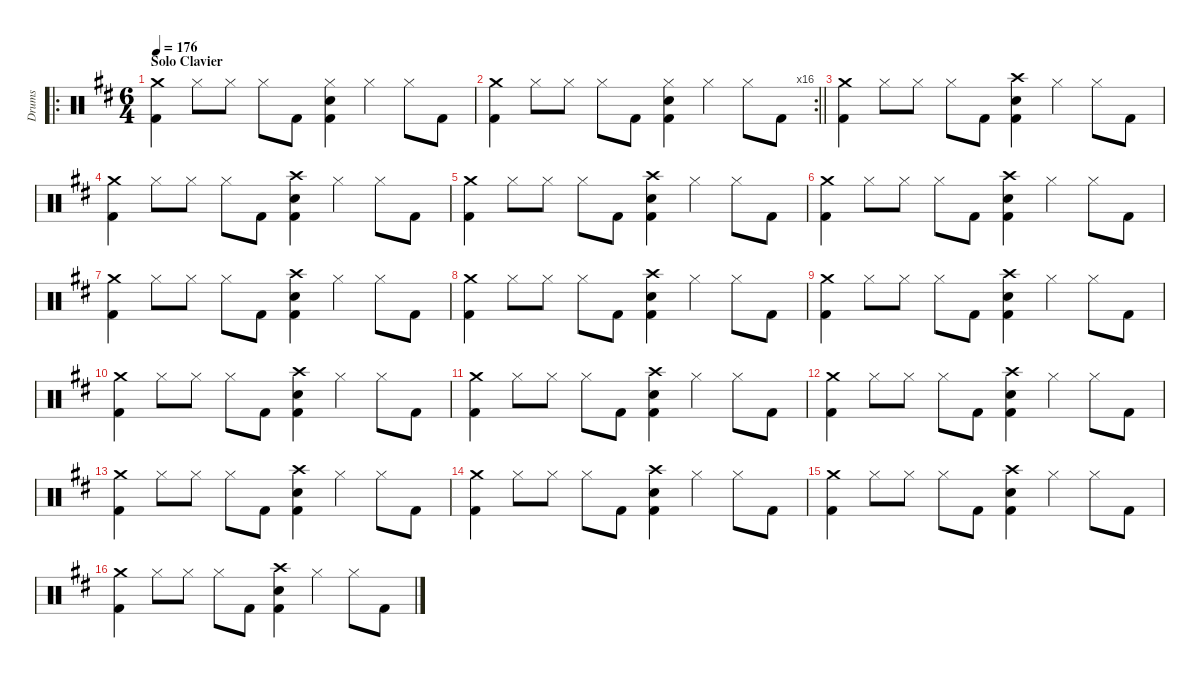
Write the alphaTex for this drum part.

\hideDynamics
\bracketExtendMode groupsimilarinstruments
\otherSystemsTrackNameOrientation horizontal
\track ("Drumkit" "Drums") {defaultSystemsLayout 4 instrument percussion}
\staff {score}
\articulation defaults
\ro
\ts (6 4)
\section ("" "Solo Clavier")
\tempo 176
\clef neutral
\ks bminor
("Crash medium (hit)"{acc forcenatural} "Kick (hit) 2"{acc forcenatural}).4{dy ff beam Down} "Hi-Hat (closed)"{acc forcenatural}.8{dy f beam Down} "Hi-Hat (closed)"{acc forcenatural}.8{beam Down} "Hi-Hat (closed)"{acc forcenatural}.8{beam Down} "Kick (hit) 2"{acc forcenatural}.8{beam Down} ("Hi-Hat (closed)"{acc forcenatural} "Snare (hit) 2"{acc forcenatural} "Kick (hit) 2"{acc forcenatural}).4{beam Down} "Hi-Hat (closed)"{acc forcenatural}.4{beam Down} "Hi-Hat (closed)"{acc forcenatural}.8{beam Down} "Kick (hit) 2"{acc forcenatural}.8{beam Down} |
\rc 16
\barLineRight lightlight
("Crash medium (hit)"{acc forcenatural} "Kick (hit) 2"{acc forcenatural}).4{dy ff beam Down} "Hi-Hat (closed)"{acc forcenatural}.8{dy f beam Down} "Hi-Hat (closed)"{acc forcenatural}.8{beam Down} "Hi-Hat (closed)"{acc forcenatural}.8{beam Down} "Kick (hit) 2"{acc forcenatural}.8{beam Down} ("Hi-Hat (closed)"{acc forcenatural} "Snare (hit) 2"{acc forcenatural} "Kick (hit) 2"{acc forcenatural}).4{beam Down} "Hi-Hat (closed)"{acc forcenatural}.4{beam Down} "Hi-Hat (closed)"{acc forcenatural}.8{beam Down} "Kick (hit) 2"{acc forcenatural}.8{beam Down} |
("Crash medium (hit)"{acc forcenatural} "Kick (hit) 2"{acc forcenatural}).4{dy ff beam Down} "Hi-Hat (closed)"{acc forcenatural}.8{dy f beam Down} "Hi-Hat (closed)"{acc forcenatural}.8{beam Down} "Hi-Hat (closed)"{acc forcenatural}.8{beam Down} "Kick (hit) 2"{acc forcenatural}.8{beam Down} ("Crash high (hit)"{acc forcenatural} "Snare (hit) 2"{acc forcenatural} "Kick (hit) 2"{acc forcenatural}).4{beam Down} "Hi-Hat (closed)"{acc forcenatural}.4{beam Down} "Hi-Hat (closed)"{acc forcenatural}.8{beam Down} "Kick (hit) 2"{acc forcenatural}.8{beam Down} |
("Crash medium (hit)"{acc forcenatural} "Kick (hit) 2"{acc forcenatural}).4{dy ff beam Down} "Hi-Hat (closed)"{acc forcenatural}.8{dy f beam Down} "Hi-Hat (closed)"{acc forcenatural}.8{beam Down} "Hi-Hat (closed)"{acc forcenatural}.8{beam Down} "Kick (hit) 2"{acc forcenatural}.8{beam Down} ("Crash high (hit)"{acc forcenatural} "Snare (hit) 2"{acc forcenatural} "Kick (hit) 2"{acc forcenatural}).4{beam Down} "Hi-Hat (closed)"{acc forcenatural}.4{beam Down} "Hi-Hat (closed)"{acc forcenatural}.8{beam Down} "Kick (hit) 2"{acc forcenatural}.8{beam Down} |
("Crash medium (hit)"{acc forcenatural} "Kick (hit) 2"{acc forcenatural}).4{dy ff beam Down} "Hi-Hat (closed)"{acc forcenatural}.8{dy f beam Down} "Hi-Hat (closed)"{acc forcenatural}.8{beam Down} "Hi-Hat (closed)"{acc forcenatural}.8{beam Down} "Kick (hit) 2"{acc forcenatural}.8{beam Down} ("Crash high (hit)"{acc forcenatural} "Snare (hit) 2"{acc forcenatural} "Kick (hit) 2"{acc forcenatural}).4{beam Down} "Hi-Hat (closed)"{acc forcenatural}.4{beam Down} "Hi-Hat (closed)"{acc forcenatural}.8{beam Down} "Kick (hit) 2"{acc forcenatural}.8{beam Down} |
("Crash medium (hit)"{acc forcenatural} "Kick (hit) 2"{acc forcenatural}).4{dy ff beam Down} "Hi-Hat (closed)"{acc forcenatural}.8{dy f beam Down} "Hi-Hat (closed)"{acc forcenatural}.8{beam Down} "Hi-Hat (closed)"{acc forcenatural}.8{beam Down} "Kick (hit) 2"{acc forcenatural}.8{beam Down} ("Crash high (hit)"{acc forcenatural} "Snare (hit) 2"{acc forcenatural} "Kick (hit) 2"{acc forcenatural}).4{beam Down} "Hi-Hat (closed)"{acc forcenatural}.4{beam Down} "Hi-Hat (closed)"{acc forcenatural}.8{beam Down} "Kick (hit) 2"{acc forcenatural}.8{beam Down} |
("Crash medium (hit)"{acc forcenatural} "Kick (hit) 2"{acc forcenatural}).4{dy ff beam Down} "Hi-Hat (closed)"{acc forcenatural}.8{dy f beam Down} "Hi-Hat (closed)"{acc forcenatural}.8{beam Down} "Hi-Hat (closed)"{acc forcenatural}.8{beam Down} "Kick (hit) 2"{acc forcenatural}.8{beam Down} ("Crash high (hit)"{acc forcenatural} "Snare (hit) 2"{acc forcenatural} "Kick (hit) 2"{acc forcenatural}).4{beam Down} "Hi-Hat (closed)"{acc forcenatural}.4{beam Down} "Hi-Hat (closed)"{acc forcenatural}.8{beam Down} "Kick (hit) 2"{acc forcenatural}.8{beam Down} |
("Crash medium (hit)"{acc forcenatural} "Kick (hit) 2"{acc forcenatural}).4{dy ff beam Down} "Hi-Hat (closed)"{acc forcenatural}.8{dy f beam Down} "Hi-Hat (closed)"{acc forcenatural}.8{beam Down} "Hi-Hat (closed)"{acc forcenatural}.8{beam Down} "Kick (hit) 2"{acc forcenatural}.8{beam Down} ("Crash high (hit)"{acc forcenatural} "Snare (hit) 2"{acc forcenatural} "Kick (hit) 2"{acc forcenatural}).4{beam Down} "Hi-Hat (closed)"{acc forcenatural}.4{beam Down} "Hi-Hat (closed)"{acc forcenatural}.8{beam Down} "Kick (hit) 2"{acc forcenatural}.8{beam Down} |
("Crash medium (hit)"{acc forcenatural} "Kick (hit) 2"{acc forcenatural}).4{dy ff beam Down} "Hi-Hat (closed)"{acc forcenatural}.8{dy f beam Down} "Hi-Hat (closed)"{acc forcenatural}.8{beam Down} "Hi-Hat (closed)"{acc forcenatural}.8{beam Down} "Kick (hit) 2"{acc forcenatural}.8{beam Down} ("Crash high (hit)"{acc forcenatural} "Snare (hit) 2"{acc forcenatural} "Kick (hit) 2"{acc forcenatural}).4{beam Down} "Hi-Hat (closed)"{acc forcenatural}.4{beam Down} "Hi-Hat (closed)"{acc forcenatural}.8{beam Down} "Kick (hit) 2"{acc forcenatural}.8{beam Down} |
("Crash medium (hit)"{acc forcenatural} "Kick (hit) 2"{acc forcenatural}).4{dy ff beam Down} "Hi-Hat (closed)"{acc forcenatural}.8{dy f beam Down} "Hi-Hat (closed)"{acc forcenatural}.8{beam Down} "Hi-Hat (closed)"{acc forcenatural}.8{beam Down} "Kick (hit) 2"{acc forcenatural}.8{beam Down} ("Crash high (hit)"{acc forcenatural} "Snare (hit) 2"{acc forcenatural} "Kick (hit) 2"{acc forcenatural}).4{beam Down} "Hi-Hat (closed)"{acc forcenatural}.4{beam Down} "Hi-Hat (closed)"{acc forcenatural}.8{beam Down} "Kick (hit) 2"{acc forcenatural}.8{beam Down} |
("Crash medium (hit)"{acc forcenatural} "Kick (hit) 2"{acc forcenatural}).4{dy ff beam Down} "Hi-Hat (closed)"{acc forcenatural}.8{dy f beam Down} "Hi-Hat (closed)"{acc forcenatural}.8{beam Down} "Hi-Hat (closed)"{acc forcenatural}.8{beam Down} "Kick (hit) 2"{acc forcenatural}.8{beam Down} ("Crash high (hit)"{acc forcenatural} "Snare (hit) 2"{acc forcenatural} "Kick (hit) 2"{acc forcenatural}).4{beam Down} "Hi-Hat (closed)"{acc forcenatural}.4{beam Down} "Hi-Hat (closed)"{acc forcenatural}.8{beam Down} "Kick (hit) 2"{acc forcenatural}.8{beam Down} |
("Crash medium (hit)"{acc forcenatural} "Kick (hit) 2"{acc forcenatural}).4{dy ff beam Down} "Hi-Hat (closed)"{acc forcenatural}.8{dy f beam Down} "Hi-Hat (closed)"{acc forcenatural}.8{beam Down} "Hi-Hat (closed)"{acc forcenatural}.8{beam Down} "Kick (hit) 2"{acc forcenatural}.8{beam Down} ("Crash high (hit)"{acc forcenatural} "Snare (hit) 2"{acc forcenatural} "Kick (hit) 2"{acc forcenatural}).4{beam Down} "Hi-Hat (closed)"{acc forcenatural}.4{beam Down} "Hi-Hat (closed)"{acc forcenatural}.8{beam Down} "Kick (hit) 2"{acc forcenatural}.8{beam Down} |
("Crash medium (hit)"{acc forcenatural} "Kick (hit) 2"{acc forcenatural}).4{dy ff beam Down} "Hi-Hat (closed)"{acc forcenatural}.8{dy f beam Down} "Hi-Hat (closed)"{acc forcenatural}.8{beam Down} "Hi-Hat (closed)"{acc forcenatural}.8{beam Down} "Kick (hit) 2"{acc forcenatural}.8{beam Down} ("Crash high (hit)"{acc forcenatural} "Snare (hit) 2"{acc forcenatural} "Kick (hit) 2"{acc forcenatural}).4{beam Down} "Hi-Hat (closed)"{acc forcenatural}.4{beam Down} "Hi-Hat (closed)"{acc forcenatural}.8{beam Down} "Kick (hit) 2"{acc forcenatural}.8{beam Down} |
("Crash medium (hit)"{acc forcenatural} "Kick (hit) 2"{acc forcenatural}).4{dy ff beam Down} "Hi-Hat (closed)"{acc forcenatural}.8{dy f beam Down} "Hi-Hat (closed)"{acc forcenatural}.8{beam Down} "Hi-Hat (closed)"{acc forcenatural}.8{beam Down} "Kick (hit) 2"{acc forcenatural}.8{beam Down} ("Crash high (hit)"{acc forcenatural} "Snare (hit) 2"{acc forcenatural} "Kick (hit) 2"{acc forcenatural}).4{beam Down} "Hi-Hat (closed)"{acc forcenatural}.4{beam Down} "Hi-Hat (closed)"{acc forcenatural}.8{beam Down} "Kick (hit) 2"{acc forcenatural}.8{beam Down} |
("Crash medium (hit)"{acc forcenatural} "Kick (hit) 2"{acc forcenatural}).4{dy ff beam Down} "Hi-Hat (closed)"{acc forcenatural}.8{dy f beam Down} "Hi-Hat (closed)"{acc forcenatural}.8{beam Down} "Hi-Hat (closed)"{acc forcenatural}.8{beam Down} "Kick (hit) 2"{acc forcenatural}.8{beam Down} ("Crash high (hit)"{acc forcenatural} "Snare (hit) 2"{acc forcenatural} "Kick (hit) 2"{acc forcenatural}).4{beam Down} "Hi-Hat (closed)"{acc forcenatural}.4{beam Down} "Hi-Hat (closed)"{acc forcenatural}.8{beam Down} "Kick (hit) 2"{acc forcenatural}.8{beam Down} |
("Crash medium (hit)"{acc forcenatural} "Kick (hit) 2"{acc forcenatural}).4{dy ff beam Down} "Hi-Hat (closed)"{acc forcenatural}.8{dy f beam Down} "Hi-Hat (closed)"{acc forcenatural}.8{beam Down} "Hi-Hat (closed)"{acc forcenatural}.8{beam Down} "Kick (hit) 2"{acc forcenatural}.8{beam Down} ("Crash high (hit)"{acc forcenatural} "Snare (hit) 2"{acc forcenatural} "Kick (hit) 2"{acc forcenatural}).4{beam Down} "Hi-Hat (closed)"{acc forcenatural}.4{beam Down} "Hi-Hat (closed)"{acc forcenatural}.8{beam Down} "Kick (hit) 2"{acc forcenatural}.8{beam Down}
